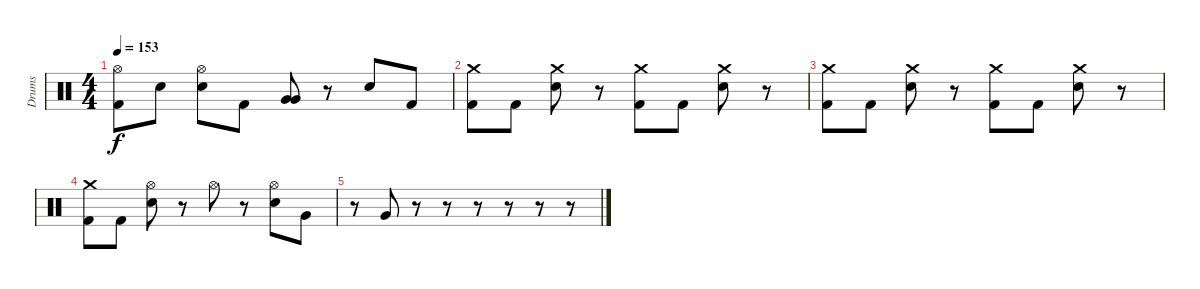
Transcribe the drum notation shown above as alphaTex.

\track ("Drums" "Drums") {instrument percussion}
\staff {score}
\articulation defaults
\ts (4 4)
\tempo 153
\clef neutral
\ks c
("Hi-Hat (open)" "Kick (hit) 2").8{dy f} "Electric Snare (hit)".8 ("Hi-Hat (open)" "Electric Snare (hit)").8 "Kick (hit) 2".8 ("Very Low Tom (hit)" "Very Low Tom (hit)").8 r.8 "Electric Snare (hit)".8 "Kick (hit) 2".8 |
("Crash medium (hit)" "Kick (hit) 2").8 "Kick (hit) 2".8 ("Crash medium (hit)" "Electric Snare (hit)").8 r.8 ("Crash medium (hit)" "Kick (hit) 2").8 "Kick (hit) 2".8 ("Crash medium (hit)" "Electric Snare (hit)").8 r.8 |
("Crash medium (hit)" "Kick (hit) 2").8 "Kick (hit) 2".8 ("Crash medium (hit)" "Electric Snare (hit)").8 r.8 ("Crash medium (hit)" "Kick (hit) 2").8 "Kick (hit) 2".8 ("Crash medium (hit)" "Electric Snare (hit)").8 r.8 |
("Crash medium (hit)" "Kick (hit) 2").8 "Kick (hit) 2".8 ("Hi-Hat (open)" "Electric Snare (hit)").8 r.8 "Hi-Hat (open)".8 r.8 ("Hi-Hat (open)" "Electric Snare (hit)").8 "Very Low Tom (hit)".8 |
r.8 "Very Low Tom (hit)".8 r.8 r.8 r.8 r.8 r.8 r.8
